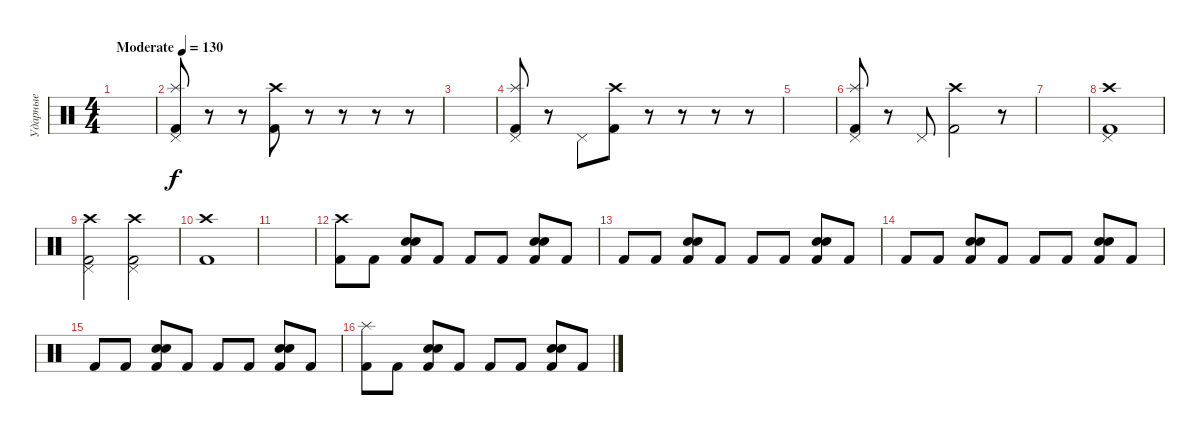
\track ("Ударные" "Ударные") {instrument percussion}
\staff {score}
\articulation defaults
\ts (4 4)
\tempo (130 "Moderate")
\clef neutral
\ks c
|
("Pedal Hi-Hat (hit)" "Splash (hit)" "Kick (hit) 2").8 r.8 r.8 ("Crash high (hit)" "Kick (hit) 2").8 r.8 r.8 r.8 r.8 |
|
("Pedal Hi-Hat (hit)" "Splash (hit)" "Kick (hit) 2").8 r.8 "Pedal Hi-Hat (hit)".8 ("Crash high (hit)" "Kick (hit) 2").8 r.8 r.8 r.8 r.8 |
|
("Pedal Hi-Hat (hit)" "Splash (hit)" "Kick (hit) 2").8 r.8 "Pedal Hi-Hat (hit)".8 ("Crash high (hit)" "Kick (hit) 2").2 r.8 |
|
("Pedal Hi-Hat (hit)" "Crash high (hit)" "Kick (hit) 2").1 |
("Pedal Hi-Hat (hit)" "Crash high (hit)" "Kick (hit) 2").2 ("Pedal Hi-Hat (hit)" "Crash high (hit)" "Kick (hit) 2").2 |
("Crash high (hit)" "Kick (hit) 2").1 |
|
("Crash high (hit)" "Kick (hit) 2").8 "Kick (hit) 2".8 ("Snare (hit) 2" "Snare (hit) 2" "Kick (hit) 2").8 "Kick (hit) 2".8 "Kick (hit) 2".8 "Kick (hit) 2".8 ("Snare (hit) 2" "Snare (hit) 2" "Kick (hit) 2").8 "Kick (hit) 2".8 |
"Kick (hit) 2".8 "Kick (hit) 2".8 ("Snare (hit) 2" "Snare (hit) 2" "Kick (hit) 2").8 "Kick (hit) 2".8 "Kick (hit) 2".8 "Kick (hit) 2".8 ("Snare (hit) 2" "Snare (hit) 2" "Kick (hit) 2").8 "Kick (hit) 2".8 |
"Kick (hit) 2".8 "Kick (hit) 2".8 ("Snare (hit) 2" "Snare (hit) 2" "Kick (hit) 2").8 "Kick (hit) 2".8 "Kick (hit) 2".8 "Kick (hit) 2".8 ("Snare (hit) 2" "Snare (hit) 2" "Kick (hit) 2").8 "Kick (hit) 2".8 |
"Kick (hit) 2".8 "Kick (hit) 2".8 ("Snare (hit) 2" "Snare (hit) 2" "Kick (hit) 2").8 "Kick (hit) 2".8 "Kick (hit) 2".8 "Kick (hit) 2".8 ("Snare (hit) 2" "Snare (hit) 2" "Kick (hit) 2").8 "Kick (hit) 2".8 |
("Splash (hit)" "Kick (hit) 2").8 "Kick (hit) 2".8 ("Snare (hit) 2" "Snare (hit) 2" "Kick (hit) 2").8 "Kick (hit) 2".8 "Kick (hit) 2".8 "Kick (hit) 2".8 ("Snare (hit) 2" "Snare (hit) 2" "Kick (hit) 2").8 "Kick (hit) 2".8
